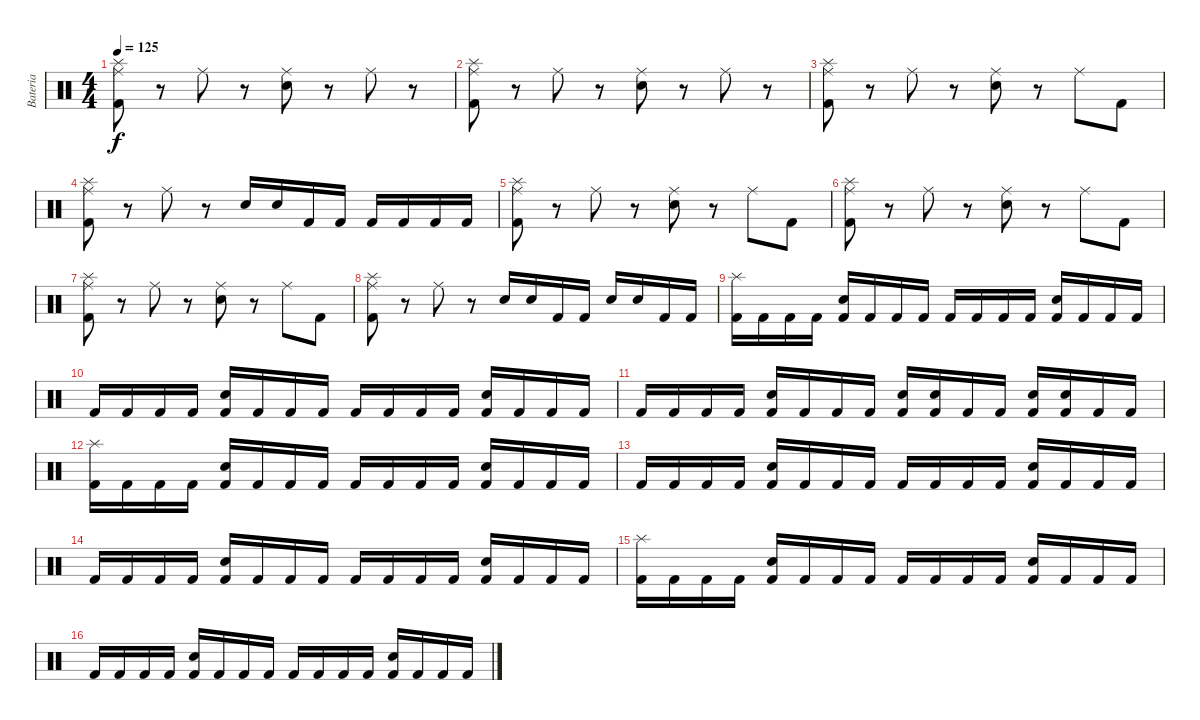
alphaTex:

\track ("Bateria" "Bateria") {instrument percussion}
\staff {score}
\articulation defaults
\ts (4 4)
\tempo 125
\clef neutral
\ks c
("Ride (middle)" "Kick (hit) 2" "Splash (hit)").8{dy f} r.8 "Ride (middle)".8 r.8 ("Ride (middle)" "Electric Snare (hit)").8 r.8 "Ride (middle)".8 r.8 |
("Ride (middle)" "Kick (hit) 2" "Splash (hit)").8 r.8 "Ride (middle)".8 r.8 ("Ride (middle)" "Electric Snare (hit)").8 r.8 "Ride (middle)".8 r.8 |
("Ride (middle)" "Kick (hit) 2" "Splash (hit)").8 r.8 "Ride (middle)".8 r.8 ("Ride (middle)" "Electric Snare (hit)").8 r.8 "Ride (middle)".8 "Kick (hit) 2".8 |
("Ride (middle)" "Kick (hit) 2" "Splash (hit)").8 r.8 "Ride (middle)".8 r.8 "Electric Snare (hit)".16 "Electric Snare (hit)".16 "Kick (hit) 2".16 "Kick (hit) 2".16 "Kick (hit) 2".16 "Kick (hit) 2".16 "Kick (hit) 2".16 "Kick (hit) 2".16 |
("Ride (middle)" "Kick (hit) 2" "Splash (hit)").8 r.8 "Ride (middle)".8 r.8 ("Ride (middle)" "Electric Snare (hit)").8 r.8 "Ride (middle)".8 "Kick (hit) 2".8 |
("Ride (middle)" "Kick (hit) 2" "Splash (hit)").8 r.8 "Ride (middle)".8 r.8 ("Ride (middle)" "Electric Snare (hit)").8 r.8 "Ride (middle)".8 "Kick (hit) 2".8 |
("Ride (middle)" "Kick (hit) 2" "Splash (hit)").8 r.8 "Ride (middle)".8 r.8 ("Ride (middle)" "Electric Snare (hit)").8 r.8 "Ride (middle)".8 "Kick (hit) 2".8 |
("Ride (middle)" "Kick (hit) 2" "Splash (hit)").8 r.8 "Ride (middle)".8 r.8 "Electric Snare (hit)".16 "Electric Snare (hit)".16 "Kick (hit) 2".16 "Kick (hit) 2".16 "Electric Snare (hit)".16 "Electric Snare (hit)".16 "Kick (hit) 2".16 "Kick (hit) 2".16 |
("Kick (hit) 2" "Splash (hit)").16 "Kick (hit) 2".16 "Kick (hit) 2".16 "Kick (hit) 2".16 ("Kick (hit) 2" "Electric Snare (hit)").16 "Kick (hit) 2".16 "Kick (hit) 2".16 "Kick (hit) 2".16 "Kick (hit) 2".16 "Kick (hit) 2".16 "Kick (hit) 2".16 "Kick (hit) 2".16 ("Kick (hit) 2" "Electric Snare (hit)").16 "Kick (hit) 2".16 "Kick (hit) 2".16 "Kick (hit) 2".16 |
"Kick (hit) 2".16 "Kick (hit) 2".16 "Kick (hit) 2".16 "Kick (hit) 2".16 ("Kick (hit) 2" "Electric Snare (hit)").16 "Kick (hit) 2".16 "Kick (hit) 2".16 "Kick (hit) 2".16 "Kick (hit) 2".16 "Kick (hit) 2".16 "Kick (hit) 2".16 "Kick (hit) 2".16 ("Kick (hit) 2" "Electric Snare (hit)").16 "Kick (hit) 2".16 "Kick (hit) 2".16 "Kick (hit) 2".16 |
"Kick (hit) 2".16 "Kick (hit) 2".16 "Kick (hit) 2".16 "Kick (hit) 2".16 ("Kick (hit) 2" "Electric Snare (hit)").16 "Kick (hit) 2".16 "Kick (hit) 2".16 "Kick (hit) 2".16 ("Kick (hit) 2" "Electric Snare (hit)").16 ("Kick (hit) 2" "Electric Snare (hit)").16 "Kick (hit) 2".16 "Kick (hit) 2".16 ("Kick (hit) 2" "Electric Snare (hit)").16 ("Kick (hit) 2" "Electric Snare (hit)").16 "Kick (hit) 2".16 "Kick (hit) 2".16 |
("Kick (hit) 2" "Splash (hit)").16 "Kick (hit) 2".16 "Kick (hit) 2".16 "Kick (hit) 2".16 ("Kick (hit) 2" "Electric Snare (hit)").16 "Kick (hit) 2".16 "Kick (hit) 2".16 "Kick (hit) 2".16 "Kick (hit) 2".16 "Kick (hit) 2".16 "Kick (hit) 2".16 "Kick (hit) 2".16 ("Kick (hit) 2" "Electric Snare (hit)").16 "Kick (hit) 2".16 "Kick (hit) 2".16 "Kick (hit) 2".16 |
"Kick (hit) 2".16 "Kick (hit) 2".16 "Kick (hit) 2".16 "Kick (hit) 2".16 ("Kick (hit) 2" "Electric Snare (hit)").16 "Kick (hit) 2".16 "Kick (hit) 2".16 "Kick (hit) 2".16 "Kick (hit) 2".16 "Kick (hit) 2".16 "Kick (hit) 2".16 "Kick (hit) 2".16 ("Kick (hit) 2" "Electric Snare (hit)").16 "Kick (hit) 2".16 "Kick (hit) 2".16 "Kick (hit) 2".16 |
"Kick (hit) 2".16 "Kick (hit) 2".16 "Kick (hit) 2".16 "Kick (hit) 2".16 ("Kick (hit) 2" "Electric Snare (hit)").16 "Kick (hit) 2".16 "Kick (hit) 2".16 "Kick (hit) 2".16 "Kick (hit) 2".16 "Kick (hit) 2".16 "Kick (hit) 2".16 "Kick (hit) 2".16 ("Kick (hit) 2" "Electric Snare (hit)").16 "Kick (hit) 2".16 "Kick (hit) 2".16 "Kick (hit) 2".16 |
("Kick (hit) 2" "Splash (hit)").16 "Kick (hit) 2".16 "Kick (hit) 2".16 "Kick (hit) 2".16 ("Kick (hit) 2" "Electric Snare (hit)").16 "Kick (hit) 2".16 "Kick (hit) 2".16 "Kick (hit) 2".16 "Kick (hit) 2".16 "Kick (hit) 2".16 "Kick (hit) 2".16 "Kick (hit) 2".16 ("Kick (hit) 2" "Electric Snare (hit)").16 "Kick (hit) 2".16 "Kick (hit) 2".16 "Kick (hit) 2".16 |
"Kick (hit) 2".16 "Kick (hit) 2".16 "Kick (hit) 2".16 "Kick (hit) 2".16 ("Kick (hit) 2" "Electric Snare (hit)").16 "Kick (hit) 2".16 "Kick (hit) 2".16 "Kick (hit) 2".16 "Kick (hit) 2".16 "Kick (hit) 2".16 "Kick (hit) 2".16 "Kick (hit) 2".16 ("Kick (hit) 2" "Electric Snare (hit)").16 "Kick (hit) 2".16 "Kick (hit) 2".16 "Kick (hit) 2".16
